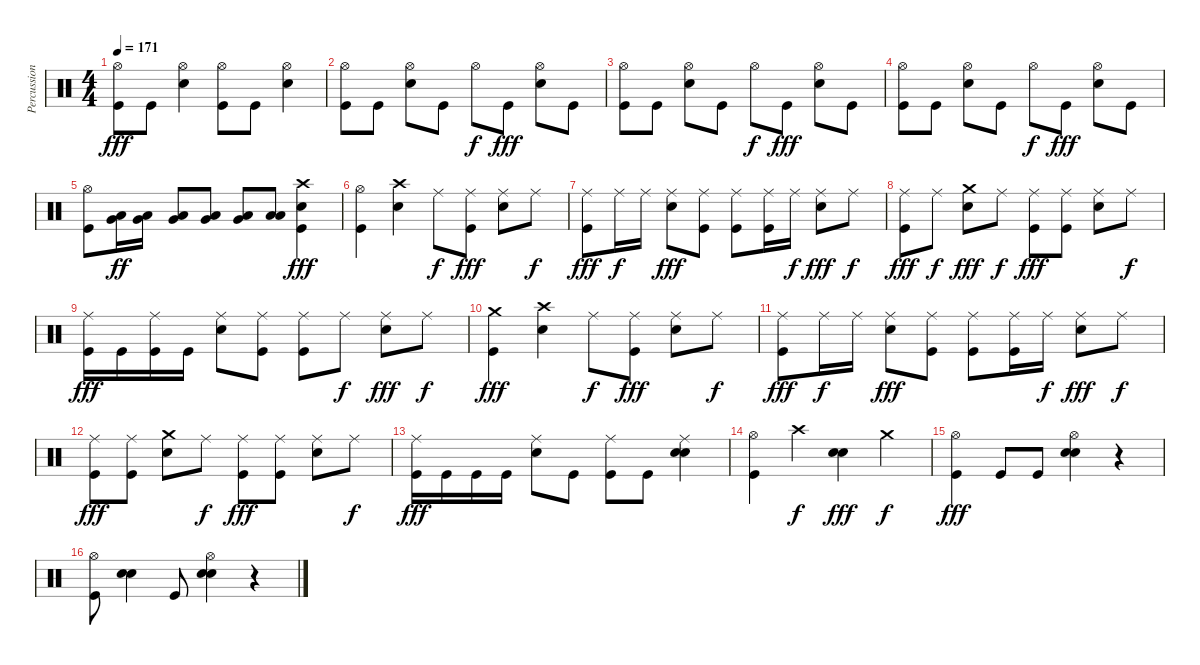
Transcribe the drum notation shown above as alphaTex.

\track ("Percussion" "Percussion") {instrument percussion}
\staff {score}
\articulation defaults
\ts (4 4)
\tempo 171
\clef neutral
\ks c
("Hi-Hat (open)" "Kick (hit)").8{dy fff} "Kick (hit)".8 ("Hi-Hat (open)" "Snare (hit) 2").4 ("Hi-Hat (open)" "Kick (hit)").8 "Kick (hit)".8 ("Hi-Hat (open)" "Snare (hit) 2").4 |
("Hi-Hat (open)" "Kick (hit)").8 "Kick (hit)".8 ("Hi-Hat (open)" "Snare (hit) 2").8 "Kick (hit)".8 "Hi-Hat (open)".8{dy f} "Kick (hit)".8{dy fff} ("Hi-Hat (open)" "Snare (hit) 2").8 "Kick (hit)".8 |
("Hi-Hat (open)" "Kick (hit)").8 "Kick (hit)".8 ("Hi-Hat (open)" "Snare (hit) 2").8 "Kick (hit)".8 "Hi-Hat (open)".8{dy f} "Kick (hit)".8{dy fff} ("Hi-Hat (open)" "Snare (hit) 2").8 "Kick (hit)".8 |
("Hi-Hat (open)" "Kick (hit)").8 "Kick (hit)".8 ("Hi-Hat (open)" "Snare (hit) 2").8 "Kick (hit)".8 "Hi-Hat (open)".8{dy f} "Kick (hit)".8{dy fff} ("Hi-Hat (open)" "Snare (hit) 2").8 "Kick (hit)".8 |
("Hi-Hat (open)" "Kick (hit)").8 ("Very Low Tom (hit)" "Low Tom (hit)").16{dy ff} ("Very Low Tom (hit)" "Low Tom (hit)").16 ("Very Low Tom (hit)" "Low Tom (hit)").8 ("Low Floor Tom (hit)" "Very Low Tom (hit)").8 ("Low Floor Tom (hit)" "Very Low Tom (hit)").8 ("Low Floor Tom (hit)" "Low Floor Tom (hit)").8 ("Crash high (hit)" "Snare (hit) 2" "Kick (hit)").4{dy fff} |
("Hi-Hat (open)" "Kick (hit)").4 ("Crash high (hit)" "Snare (hit) 2").4 "Ride (middle)".8{dy f} ("Ride (middle)" "Kick (hit)").8{dy fff} ("Ride (middle)" "Snare (hit) 2").8 "Ride (middle)".8{dy f} |
("Ride (middle)" "Kick (hit)").8{dy fff} "Ride (middle)".16{dy f} "Ride (middle)".16 ("Ride (middle)" "Snare (hit) 2").8{dy fff} ("Ride (middle)" "Kick (hit)").8 ("Ride (middle)" "Kick (hit)").8 ("Ride (middle)" "Kick (hit)").16 "Ride (middle)".16{dy f} ("Ride (middle)" "Snare (hit) 2").8{dy fff} "Ride (middle)".8{dy f} |
("Ride (middle)" "Kick (hit)").8{dy fff} "Ride (middle)".8{dy f} ("Crash medium (hit)" "Snare (hit) 2").8{dy fff} "Ride (middle)".8{dy f} ("Ride (middle)" "Kick (hit)").8{dy fff} ("Ride (middle)" "Kick (hit)").8 ("Ride (middle)" "Snare (hit) 2").8 "Ride (middle)".8{dy f} |
("Ride (middle)" "Kick (hit)").16{dy fff} "Kick (hit)".16 ("Ride (middle)" "Kick (hit)").16 "Kick (hit)".16 ("Ride (middle)" "Snare (hit) 2").8 ("Ride (middle)" "Kick (hit)").8 ("Ride (middle)" "Kick (hit)").8 "Ride (middle)".8{dy f} ("Ride (middle)" "Snare (hit) 2").8{dy fff} "Ride (middle)".8{dy f} |
("Crash medium (hit)" "Kick (hit)").4{dy fff} ("Crash high (hit)" "Snare (hit) 2").4 "Ride (middle)".8{dy f} ("Ride (middle)" "Kick (hit)").8{dy fff} ("Ride (middle)" "Snare (hit) 2").8 "Ride (middle)".8{dy f} |
("Ride (middle)" "Kick (hit)").8{dy fff} "Ride (middle)".16{dy f} "Ride (middle)".16 ("Ride (middle)" "Snare (hit) 2").8{dy fff} ("Ride (middle)" "Kick (hit)").8 ("Ride (middle)" "Kick (hit)").8 ("Ride (middle)" "Kick (hit)").16 "Ride (middle)".16{dy f} ("Ride (middle)" "Snare (hit) 2").8{dy fff} "Ride (middle)".8{dy f} |
("Ride (middle)" "Kick (hit)").8{dy fff} ("Ride (middle)" "Kick (hit)").8 ("Crash medium (hit)" "Snare (hit) 2").8 "Ride (middle)".8{dy f} ("Ride (middle)" "Kick (hit)").8{dy fff} ("Ride (middle)" "Kick (hit)").8 ("Ride (middle)" "Snare (hit) 2").8 "Ride (middle)".8{dy f} |
("Ride (middle)" "Kick (hit)").16{dy fff} "Kick (hit)".16 "Kick (hit)".16 "Kick (hit)".16 ("Ride (middle)" "Snare (hit) 2").8 "Kick (hit)".8 ("Ride (middle)" "Kick (hit)").8 "Kick (hit)".8 ("Ride (middle)" "Electric Snare (hit)" "Snare (hit) 2").4 |
("Hi-Hat (open)" "Kick (hit)").4 "Crash high (hit)".4{dy f} ("Electric Snare (hit)" "Snare (hit) 2").4{dy fff} "Crash medium (hit)".4{dy f} |
("Hi-Hat (open)" "Kick (hit)").4{dy fff} "Kick (hit)".8 "Kick (hit)".8 ("Hi-Hat (open)" "Electric Snare (hit)" "Snare (hit) 2").4 r.4 |
("Hi-Hat (open)" "Kick (hit)").8 ("Electric Snare (hit)" "Snare (hit) 2").4 "Kick (hit)".8 ("Hi-Hat (open)" "Electric Snare (hit)" "Snare (hit) 2").4 r.4
